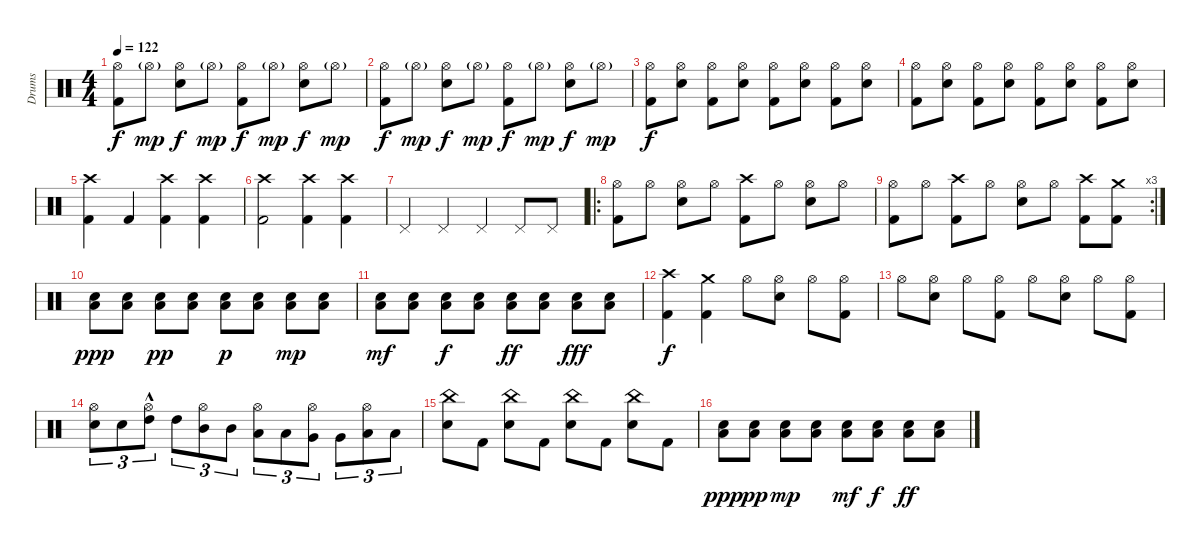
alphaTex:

\track ("Drums" "Drums") {instrument percussion}
\staff {score}
\articulation defaults
\ts (4 4)
\tempo 122
\clef neutral
\ks c
("Hi-Hat (open)" "Kick (hit) 2").8{dy f} "Hi-Hat (open)"{g}.8{dy mp} ("Hi-Hat (open)" "Snare (hit) 2").8{dy f} "Hi-Hat (open)"{g}.8{dy mp} ("Hi-Hat (open)" "Kick (hit) 2").8{dy f} "Hi-Hat (open)"{g}.8{dy mp} ("Hi-Hat (open)" "Snare (hit) 2").8{dy f} "Hi-Hat (open)"{g}.8{dy mp} |
("Hi-Hat (open)" "Kick (hit) 2").8{dy f} "Hi-Hat (open)"{g}.8{dy mp} ("Hi-Hat (open)" "Snare (hit) 2").8{dy f} "Hi-Hat (open)"{g}.8{dy mp} ("Hi-Hat (open)" "Kick (hit) 2").8{dy f} "Hi-Hat (open)"{g}.8{dy mp} ("Hi-Hat (open)" "Snare (hit) 2").8{dy f} "Hi-Hat (open)"{g}.8{dy mp} |
("Hi-Hat (open)" "Kick (hit) 2").8{dy f} ("Hi-Hat (open)" "Snare (hit) 2").8 ("Hi-Hat (open)" "Kick (hit) 2").8 ("Hi-Hat (open)" "Snare (hit) 2").8 ("Hi-Hat (open)" "Kick (hit) 2").8 ("Hi-Hat (open)" "Snare (hit) 2").8 ("Hi-Hat (open)" "Kick (hit) 2").8 ("Hi-Hat (open)" "Snare (hit) 2").8 |
("Hi-Hat (open)" "Kick (hit) 2").8 ("Hi-Hat (open)" "Snare (hit) 2").8 ("Hi-Hat (open)" "Kick (hit) 2").8 ("Hi-Hat (open)" "Snare (hit) 2").8 ("Hi-Hat (open)" "Kick (hit) 2").8 ("Hi-Hat (open)" "Snare (hit) 2").8 ("Hi-Hat (open)" "Kick (hit) 2").8 ("Hi-Hat (open)" "Snare (hit) 2").8 |
("Kick (hit) 2" "Crash high (hit)").4 "Kick (hit) 2".4 ("Kick (hit) 2" "Crash high (hit)").4 ("Kick (hit) 2" "Crash high (hit)").4 |
("Crash high (hit)" "Kick (hit) 2").2 ("Crash high (hit)" "Kick (hit) 2").4 ("Crash high (hit)" "Kick (hit) 2").4 |
"Pedal Hi-Hat (hit)".4 "Pedal Hi-Hat (hit)".4 "Pedal Hi-Hat (hit)".4 "Pedal Hi-Hat (hit)".8 "Pedal Hi-Hat (hit)".8 |
\ro
("Hi-Hat (open)" "Kick (hit) 2").8 "Hi-Hat (open)".8 ("Hi-Hat (open)" "Snare (hit) 2").8 "Hi-Hat (open)".8 ("Crash high (hit)" "Kick (hit) 2").8 "Hi-Hat (open)".8 ("Hi-Hat (open)" "Snare (hit) 2").8 "Hi-Hat (open)".8 |
\rc 3
("Hi-Hat (open)" "Kick (hit) 2").8 "Hi-Hat (open)".8 ("Crash high (hit)" "Kick (hit) 2").8 "Hi-Hat (open)".8 ("Hi-Hat (open)" "Snare (hit) 2").8 "Hi-Hat (open)".8 ("Crash high (hit)" "Kick (hit) 2").8 ("Crash medium (hit)" "Kick (hit) 2").8 |
("Snare (hit) 2" "Low Floor Tom (hit)").8{dy ppp} ("Snare (hit) 2" "Low Floor Tom (hit)").8 ("Snare (hit) 2" "Low Floor Tom (hit)").8{dy pp} ("Snare (hit) 2" "Low Floor Tom (hit)").8 ("Snare (hit) 2" "Low Floor Tom (hit)").8{dy p} ("Snare (hit) 2" "Low Floor Tom (hit)").8 ("Snare (hit) 2" "Low Floor Tom (hit)").8{dy mp} ("Snare (hit) 2" "Low Floor Tom (hit)").8 |
("Snare (hit) 2" "Low Floor Tom (hit)").8{dy mf} ("Snare (hit) 2" "Low Floor Tom (hit)").8 ("Snare (hit) 2" "Low Floor Tom (hit)").8{dy f} ("Snare (hit) 2" "Low Floor Tom (hit)").8 ("Snare (hit) 2" "Low Floor Tom (hit)").8{dy ff} ("Snare (hit) 2" "Low Floor Tom (hit)").8 ("Snare (hit) 2" "Low Floor Tom (hit)").8{dy fff} ("Snare (hit) 2" "Low Floor Tom (hit)").8 |
("Crash high (hit)" "Kick (hit) 2").4{dy f} ("Kick (hit) 2" "Crash medium (hit)").4 "Hi-Hat (open)".8 ("Hi-Hat (open)" "Snare (hit) 2").8 "Hi-Hat (open)".8 ("Hi-Hat (open)" "Kick (hit) 2").8 |
"Hi-Hat (open)".8 ("Hi-Hat (open)" "Snare (hit) 2").8 "Hi-Hat (open)".8 ("Hi-Hat (open)" "Kick (hit) 2").8 "Hi-Hat (open)".8 ("Hi-Hat (open)" "Snare (hit) 2").8 "Hi-Hat (open)".8 ("Hi-Hat (open)" "Kick (hit) 2").8 |
("Hi-Hat (open)" "Snare (hit) 2").8{tu (3 2)} "Snare (hit) 2".8{tu (3 2)} ("Hi-Hat (open)"{hac} "High Tom (hit)").8{tu (3 2)} "High Tom (hit)".8{tu (3 2)} ("Hi-Hat (open)" "Mid Tom (hit)").8{tu (3 2)} "Mid Tom (hit)".8{tu (3 2)} ("Hi-Hat (open)" "Low Tom (hit)").8{tu (3 2)} "Low Tom (hit)".8{tu (3 2)} ("Hi-Hat (open)" "Very Low Tom (hit)").8{tu (3 2)} "Very Low Tom (hit)".8{tu (3 2)} ("Hi-Hat (open)" "Low Floor Tom (hit)").8{tu (3 2)} "Low Floor Tom (hit)".8{tu (3 2)} |
("China (hit)" "Snare (hit) 2").8 "Kick (hit) 2".8 ("China (hit)" "Snare (hit) 2").8 "Kick (hit) 2".8 ("China (hit)" "Snare (hit) 2").8 "Kick (hit) 2".8 ("China (hit)" "Snare (hit) 2").8 "Kick (hit) 2".8 |
("Low Floor Tom (hit)" "Snare (hit) 2").8{dy ppp} ("Low Floor Tom (hit)" "Snare (hit) 2").8{dy pp} ("Low Floor Tom (hit)" "Snare (hit) 2").8{dy mp} ("Low Floor Tom (hit)" "Snare (hit) 2").8 ("Low Floor Tom (hit)" "Snare (hit) 2").8{dy mf} ("Low Floor Tom (hit)" "Snare (hit) 2").8{dy f} ("Low Floor Tom (hit)" "Snare (hit) 2").8{dy ff} ("Low Floor Tom (hit)" "Snare (hit) 2").8
